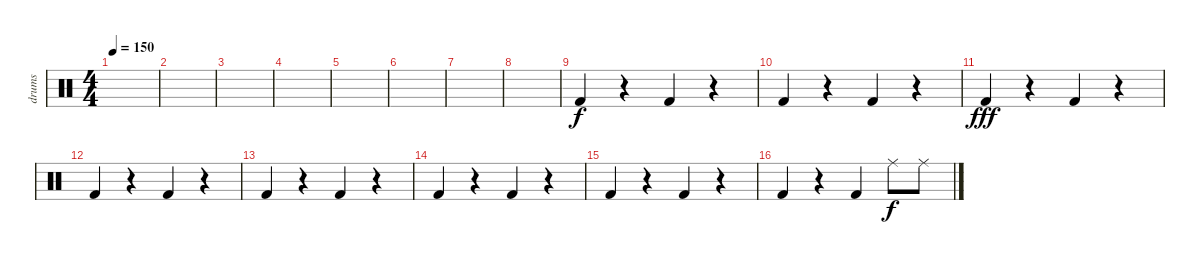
\track ("drums" "drums") {instrument percussion}
\staff {score}
\articulation defaults
\ts (4 4)
\tempo 150
\clef neutral
\ks c
|
|
|
|
|
|
|
|
"Kick (hit) 2".4 r.4 "Kick (hit) 2".4 r.4 |
"Kick (hit) 2".4 r.4 "Kick (hit) 2".4 r.4 |
"Kick (hit) 2".4{dy fff} r.4 "Kick (hit) 2".4 r.4 |
"Kick (hit) 2".4 r.4 "Kick (hit) 2".4 r.4 |
"Kick (hit) 2".4 r.4 "Kick (hit) 2".4 r.4 |
"Kick (hit) 2".4 r.4 "Kick (hit) 2".4 r.4 |
"Kick (hit) 2".4 r.4 "Kick (hit) 2".4 r.4 |
"Kick (hit) 2".4 r.4 "Kick (hit) 2".4 "Ride (middle)".8{dy f} "Ride (middle)".8
